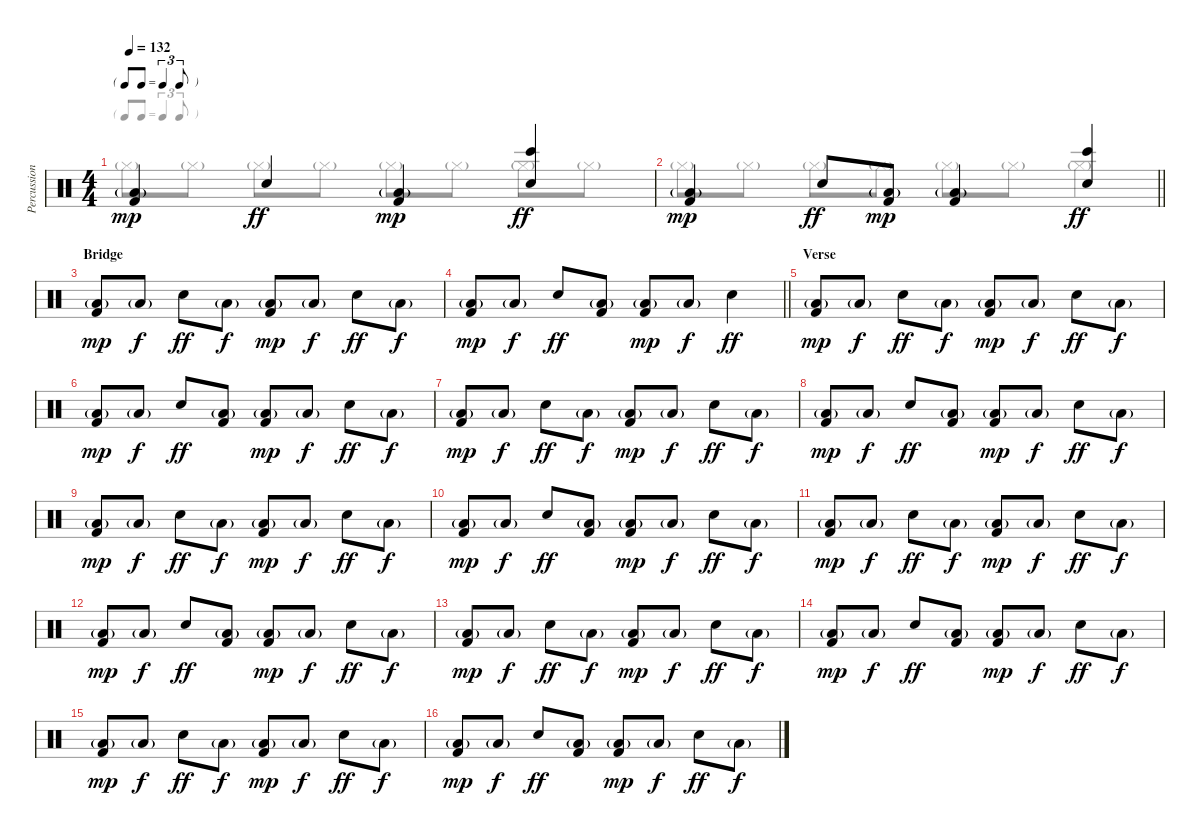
\track ("Percussion" "Percussion") {instrument percussion}
\staff {score}
\articulation defaults
\voice
\ts (4 4)
\tf triplet8th
\tempo 132
\clef neutral
\ks c
("Kick (hit) 2" "Low Floor Tom (hit)"{g}).4{dy mp} "Snare (hit) 2".4{dy ff} ("Kick (hit) 2" "Low Floor Tom (hit)"{g}).4{dy mp} ("Snare (hit) 2" "Bongo High (hit)").4{dy ff} |
\barLineRight lightlight
("Kick (hit) 2" "Low Floor Tom (hit)"{g}).4{dy mp} "Snare (hit) 2".8{dy ff} ("Kick (hit) 2" "Low Floor Tom (hit)"{g}).8{dy mp} ("Kick (hit) 2" "Low Floor Tom (hit)"{g}).4 ("Snare (hit) 2" "Bongo High (hit)").4{dy ff} |
\section ("" "Bridge")
("Kick (hit) 2" "Low Floor Tom (hit)"{g}).8{dy mp} "Low Floor Tom (hit)"{g}.8{dy f} "Snare (hit) 2".8{dy ff} "Low Floor Tom (hit)"{g}.8{dy f} ("Kick (hit) 2" "Low Floor Tom (hit)"{g}).8{dy mp} "Low Floor Tom (hit)"{g}.8{dy f} "Snare (hit) 2".8{dy ff} "Low Floor Tom (hit)"{g}.8{dy f} |
\barLineRight lightlight
("Kick (hit) 2" "Low Floor Tom (hit)"{g}).8{dy mp} "Low Floor Tom (hit)"{g}.8{dy f} "Snare (hit) 2".8{dy ff} ("Kick (hit) 2" "Low Floor Tom (hit)"{g}).8 ("Kick (hit) 2" "Low Floor Tom (hit)"{g}).8{dy mp} "Low Floor Tom (hit)"{g}.8{dy f} "Snare (hit) 2".4{dy ff} |
\section ("" "Verse")
("Kick (hit) 2" "Low Floor Tom (hit)"{g}).8{dy mp} "Low Floor Tom (hit)"{g}.8{dy f} "Snare (hit) 2".8{dy ff} "Low Floor Tom (hit)"{g}.8{dy f} ("Kick (hit) 2" "Low Floor Tom (hit)"{g}).8{dy mp} "Low Floor Tom (hit)"{g}.8{dy f} "Snare (hit) 2".8{dy ff} "Low Floor Tom (hit)"{g}.8{dy f} |
("Kick (hit) 2" "Low Floor Tom (hit)"{g}).8{dy mp} "Low Floor Tom (hit)"{g}.8{dy f} "Snare (hit) 2".8{dy ff} ("Kick (hit) 2" "Low Floor Tom (hit)"{g}).8 ("Kick (hit) 2" "Low Floor Tom (hit)"{g}).8{dy mp} "Low Floor Tom (hit)"{g}.8{dy f} "Snare (hit) 2".8{dy ff} "Low Floor Tom (hit)"{g}.8{dy f} |
("Kick (hit) 2" "Low Floor Tom (hit)"{g}).8{dy mp} "Low Floor Tom (hit)"{g}.8{dy f} "Snare (hit) 2".8{dy ff} "Low Floor Tom (hit)"{g}.8{dy f} ("Kick (hit) 2" "Low Floor Tom (hit)"{g}).8{dy mp} "Low Floor Tom (hit)"{g}.8{dy f} "Snare (hit) 2".8{dy ff} "Low Floor Tom (hit)"{g}.8{dy f} |
("Kick (hit) 2" "Low Floor Tom (hit)"{g}).8{dy mp} "Low Floor Tom (hit)"{g}.8{dy f} "Snare (hit) 2".8{dy ff} ("Kick (hit) 2" "Low Floor Tom (hit)"{g}).8 ("Kick (hit) 2" "Low Floor Tom (hit)"{g}).8{dy mp} "Low Floor Tom (hit)"{g}.8{dy f} "Snare (hit) 2".8{dy ff} "Low Floor Tom (hit)"{g}.8{dy f} |
("Kick (hit) 2" "Low Floor Tom (hit)"{g}).8{dy mp} "Low Floor Tom (hit)"{g}.8{dy f} "Snare (hit) 2".8{dy ff} "Low Floor Tom (hit)"{g}.8{dy f} ("Kick (hit) 2" "Low Floor Tom (hit)"{g}).8{dy mp} "Low Floor Tom (hit)"{g}.8{dy f} "Snare (hit) 2".8{dy ff} "Low Floor Tom (hit)"{g}.8{dy f} |
("Kick (hit) 2" "Low Floor Tom (hit)"{g}).8{dy mp} "Low Floor Tom (hit)"{g}.8{dy f} "Snare (hit) 2".8{dy ff} ("Kick (hit) 2" "Low Floor Tom (hit)"{g}).8 ("Kick (hit) 2" "Low Floor Tom (hit)"{g}).8{dy mp} "Low Floor Tom (hit)"{g}.8{dy f} "Snare (hit) 2".8{dy ff} "Low Floor Tom (hit)"{g}.8{dy f} |
("Kick (hit) 2" "Low Floor Tom (hit)"{g}).8{dy mp} "Low Floor Tom (hit)"{g}.8{dy f} "Snare (hit) 2".8{dy ff} "Low Floor Tom (hit)"{g}.8{dy f} ("Kick (hit) 2" "Low Floor Tom (hit)"{g}).8{dy mp} "Low Floor Tom (hit)"{g}.8{dy f} "Snare (hit) 2".8{dy ff} "Low Floor Tom (hit)"{g}.8{dy f} |
("Kick (hit) 2" "Low Floor Tom (hit)"{g}).8{dy mp} "Low Floor Tom (hit)"{g}.8{dy f} "Snare (hit) 2".8{dy ff} ("Kick (hit) 2" "Low Floor Tom (hit)"{g}).8 ("Kick (hit) 2" "Low Floor Tom (hit)"{g}).8{dy mp} "Low Floor Tom (hit)"{g}.8{dy f} "Snare (hit) 2".8{dy ff} "Low Floor Tom (hit)"{g}.8{dy f} |
("Kick (hit) 2" "Low Floor Tom (hit)"{g}).8{dy mp} "Low Floor Tom (hit)"{g}.8{dy f} "Snare (hit) 2".8{dy ff} "Low Floor Tom (hit)"{g}.8{dy f} ("Kick (hit) 2" "Low Floor Tom (hit)"{g}).8{dy mp} "Low Floor Tom (hit)"{g}.8{dy f} "Snare (hit) 2".8{dy ff} "Low Floor Tom (hit)"{g}.8{dy f} |
("Kick (hit) 2" "Low Floor Tom (hit)"{g}).8{dy mp} "Low Floor Tom (hit)"{g}.8{dy f} "Snare (hit) 2".8{dy ff} ("Kick (hit) 2" "Low Floor Tom (hit)"{g}).8 ("Kick (hit) 2" "Low Floor Tom (hit)"{g}).8{dy mp} "Low Floor Tom (hit)"{g}.8{dy f} "Snare (hit) 2".8{dy ff} "Low Floor Tom (hit)"{g}.8{dy f} |
("Kick (hit) 2" "Low Floor Tom (hit)"{g}).8{dy mp} "Low Floor Tom (hit)"{g}.8{dy f} "Snare (hit) 2".8{dy ff} "Low Floor Tom (hit)"{g}.8{dy f} ("Kick (hit) 2" "Low Floor Tom (hit)"{g}).8{dy mp} "Low Floor Tom (hit)"{g}.8{dy f} "Snare (hit) 2".8{dy ff} "Low Floor Tom (hit)"{g}.8{dy f} |
("Kick (hit) 2" "Low Floor Tom (hit)"{g}).8{dy mp} "Low Floor Tom (hit)"{g}.8{dy f} "Snare (hit) 2".8{dy ff} ("Kick (hit) 2" "Low Floor Tom (hit)"{g}).8 ("Kick (hit) 2" "Low Floor Tom (hit)"{g}).8{dy mp} "Low Floor Tom (hit)"{g}.8{dy f} "Snare (hit) 2".8{dy ff} "Low Floor Tom (hit)"{g}.8{dy f}
\voice
\clef neutral
\ottava regular
\simile none
\ks c "Hi-Hat (closed)"{g}.8{dy mp} "Hi-Hat (closed)"{g}.8 "Hi-Hat (closed)"{g}.8 "Hi-Hat (closed)"{g}.8 "Hi-Hat (closed)"{g}.8 "Hi-Hat (closed)"{g}.8 "Hi-Hat (closed)"{g}.8 "Hi-Hat (closed)"{g}.8
|
\barLineRight lightlight "Hi-Hat (closed)"{g}.8 "Hi-Hat (closed)"{g}.8 "Hi-Hat (closed)"{g}.8 "Hi-Hat (closed)"{g}.8 "Hi-Hat (closed)"{g}.8 "Hi-Hat (closed)"{g}.8 "Hi-Hat (closed)"{g}.4
|
|
\barLineRight lightlight
|
|
|
|
|
|
|
|
|
|
|
|
